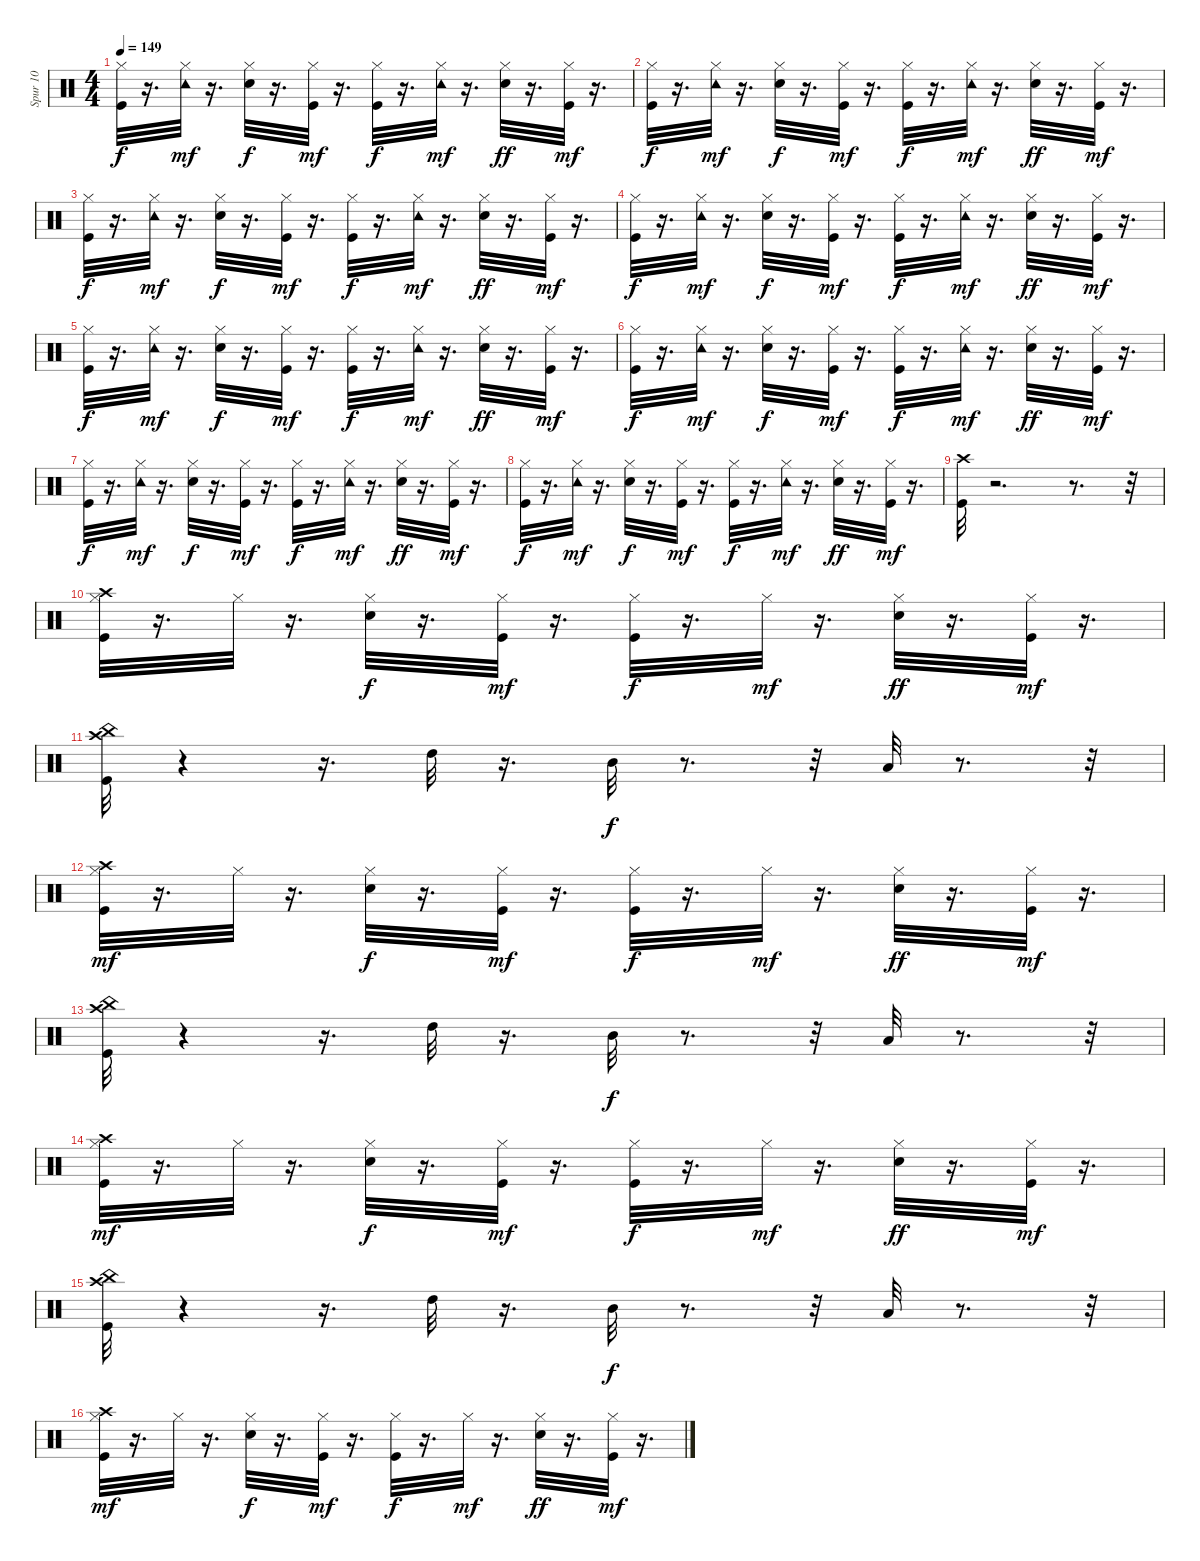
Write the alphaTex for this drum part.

\track ("Spur 10" "Spur 10") {instrument percussion}
\staff {score}
\articulation defaults
\ts (4 4)
\tempo 149
\clef neutral
\ks c
("Kick (hit)" "Hi-Hat (closed)").32{dy f} r.16{d} ("Hi-Hat (closed)" "Tambourine (hit)").32{dy mf} r.16{d} ("Snare (hit) 2" "Hi-Hat (closed)").32{dy f} r.16{d} ("Kick (hit)" "Hi-Hat (closed)").32{dy mf} r.16{d} ("Kick (hit)" "Hi-Hat (closed)").32{dy f} r.16{d} ("Hi-Hat (closed)" "Tambourine (hit)").32{dy mf} r.16{d} ("Snare (hit) 2" "Hi-Hat (closed)").32{dy ff} r.16{d} ("Kick (hit)" "Hi-Hat (closed)").32{dy mf} r.16{d} |
("Kick (hit)" "Hi-Hat (closed)").32{dy f} r.16{d} ("Hi-Hat (closed)" "Tambourine (hit)").32{dy mf} r.16{d} ("Snare (hit) 2" "Hi-Hat (closed)").32{dy f} r.16{d} ("Kick (hit)" "Hi-Hat (closed)").32{dy mf} r.16{d} ("Kick (hit)" "Hi-Hat (closed)").32{dy f} r.16{d} ("Hi-Hat (closed)" "Tambourine (hit)").32{dy mf} r.16{d} ("Snare (hit) 2" "Hi-Hat (closed)").32{dy ff} r.16{d} ("Kick (hit)" "Hi-Hat (closed)").32{dy mf} r.16{d} |
("Kick (hit)" "Hi-Hat (closed)").32{dy f} r.16{d} ("Hi-Hat (closed)" "Tambourine (hit)").32{dy mf} r.16{d} ("Snare (hit) 2" "Hi-Hat (closed)").32{dy f} r.16{d} ("Kick (hit)" "Hi-Hat (closed)").32{dy mf} r.16{d} ("Kick (hit)" "Hi-Hat (closed)").32{dy f} r.16{d} ("Hi-Hat (closed)" "Tambourine (hit)").32{dy mf} r.16{d} ("Snare (hit) 2" "Hi-Hat (closed)").32{dy ff} r.16{d} ("Kick (hit)" "Hi-Hat (closed)").32{dy mf} r.16{d} |
("Kick (hit)" "Hi-Hat (closed)").32{dy f} r.16{d} ("Hi-Hat (closed)" "Tambourine (hit)").32{dy mf} r.16{d} ("Snare (hit) 2" "Hi-Hat (closed)").32{dy f} r.16{d} ("Kick (hit)" "Hi-Hat (closed)").32{dy mf} r.16{d} ("Kick (hit)" "Hi-Hat (closed)").32{dy f} r.16{d} ("Hi-Hat (closed)" "Tambourine (hit)").32{dy mf} r.16{d} ("Snare (hit) 2" "Hi-Hat (closed)").32{dy ff} r.16{d} ("Kick (hit)" "Hi-Hat (closed)").32{dy mf} r.16{d} |
("Kick (hit)" "Hi-Hat (closed)").32{dy f} r.16{d} ("Hi-Hat (closed)" "Tambourine (hit)").32{dy mf} r.16{d} ("Snare (hit) 2" "Hi-Hat (closed)").32{dy f} r.16{d} ("Kick (hit)" "Hi-Hat (closed)").32{dy mf} r.16{d} ("Kick (hit)" "Hi-Hat (closed)").32{dy f} r.16{d} ("Hi-Hat (closed)" "Tambourine (hit)").32{dy mf} r.16{d} ("Snare (hit) 2" "Hi-Hat (closed)").32{dy ff} r.16{d} ("Kick (hit)" "Hi-Hat (closed)").32{dy mf} r.16{d} |
("Kick (hit)" "Hi-Hat (closed)").32{dy f} r.16{d} ("Hi-Hat (closed)" "Tambourine (hit)").32{dy mf} r.16{d} ("Snare (hit) 2" "Hi-Hat (closed)").32{dy f} r.16{d} ("Kick (hit)" "Hi-Hat (closed)").32{dy mf} r.16{d} ("Kick (hit)" "Hi-Hat (closed)").32{dy f} r.16{d} ("Hi-Hat (closed)" "Tambourine (hit)").32{dy mf} r.16{d} ("Snare (hit) 2" "Hi-Hat (closed)").32{dy ff} r.16{d} ("Kick (hit)" "Hi-Hat (closed)").32{dy mf} r.16{d} |
("Kick (hit)" "Hi-Hat (closed)").32{dy f} r.16{d} ("Hi-Hat (closed)" "Tambourine (hit)").32{dy mf} r.16{d} ("Snare (hit) 2" "Hi-Hat (closed)").32{dy f} r.16{d} ("Kick (hit)" "Hi-Hat (closed)").32{dy mf} r.16{d} ("Kick (hit)" "Hi-Hat (closed)").32{dy f} r.16{d} ("Hi-Hat (closed)" "Tambourine (hit)").32{dy mf} r.16{d} ("Snare (hit) 2" "Hi-Hat (closed)").32{dy ff} r.16{d} ("Kick (hit)" "Hi-Hat (closed)").32{dy mf} r.16{d} |
("Kick (hit)" "Hi-Hat (closed)").32{dy f} r.16{d} ("Hi-Hat (closed)" "Tambourine (hit)").32{dy mf} r.16{d} ("Snare (hit) 2" "Hi-Hat (closed)").32{dy f} r.16{d} ("Kick (hit)" "Hi-Hat (closed)").32{dy mf} r.16{d} ("Kick (hit)" "Hi-Hat (closed)").32{dy f} r.16{d} ("Hi-Hat (closed)" "Tambourine (hit)").32{dy mf} r.16{d} ("Snare (hit) 2" "Hi-Hat (closed)").32{dy ff} r.16{d} ("Kick (hit)" "Hi-Hat (closed)").32{dy mf} r.16{d} |
("Kick (hit)" "Crash high (hit)").32 r.2{d} r.8{d} r.32 |
("Kick (hit)" "Hi-Hat (closed)" "Crash high (hit)").32 r.16{d} "Hi-Hat (closed)".32 r.16{d} ("Snare (hit) 2" "Hi-Hat (closed)").32{dy f} r.16{d} ("Kick (hit)" "Hi-Hat (closed)").32{dy mf} r.16{d} ("Kick (hit)" "Hi-Hat (closed)").32{dy f} r.16{d} "Hi-Hat (closed)".32{dy mf} r.16{d} ("Snare (hit) 2" "Hi-Hat (closed)").32{dy ff} r.16{d} ("Kick (hit)" "Hi-Hat (closed)").32{dy mf} r.16{d} |
("Kick (hit)" "China (choke)" "Crash high (hit)").32 r.4 r.16{d} "High Tom (hit)".32 r.16{d} "Mid Tom (hit)".32{dy f} r.8{d} r.32 "Low Tom (hit)".32 r.8{d} r.32 |
("Kick (hit)" "Hi-Hat (closed)" "Crash high (hit)").32{dy mf} r.16{d} "Hi-Hat (closed)".32 r.16{d} ("Snare (hit) 2" "Hi-Hat (closed)").32{dy f} r.16{d} ("Kick (hit)" "Hi-Hat (closed)").32{dy mf} r.16{d} ("Kick (hit)" "Hi-Hat (closed)").32{dy f} r.16{d} "Hi-Hat (closed)".32{dy mf} r.16{d} ("Snare (hit) 2" "Hi-Hat (closed)").32{dy ff} r.16{d} ("Kick (hit)" "Hi-Hat (closed)").32{dy mf} r.16{d} |
("Kick (hit)" "China (choke)" "Crash high (hit)").32 r.4 r.16{d} "High Tom (hit)".32 r.16{d} "Mid Tom (hit)".32{dy f} r.8{d} r.32 "Low Tom (hit)".32 r.8{d} r.32 |
("Kick (hit)" "Hi-Hat (closed)" "Crash high (hit)").32{dy mf} r.16{d} "Hi-Hat (closed)".32 r.16{d} ("Snare (hit) 2" "Hi-Hat (closed)").32{dy f} r.16{d} ("Kick (hit)" "Hi-Hat (closed)").32{dy mf} r.16{d} ("Kick (hit)" "Hi-Hat (closed)").32{dy f} r.16{d} "Hi-Hat (closed)".32{dy mf} r.16{d} ("Snare (hit) 2" "Hi-Hat (closed)").32{dy ff} r.16{d} ("Kick (hit)" "Hi-Hat (closed)").32{dy mf} r.16{d} |
("Kick (hit)" "China (choke)" "Crash high (hit)").32 r.4 r.16{d} "High Tom (hit)".32 r.16{d} "Mid Tom (hit)".32{dy f} r.8{d} r.32 "Low Tom (hit)".32 r.8{d} r.32 |
("Kick (hit)" "Hi-Hat (closed)" "Crash high (hit)").32{dy mf} r.16{d} "Hi-Hat (closed)".32 r.16{d} ("Snare (hit) 2" "Hi-Hat (closed)").32{dy f} r.16{d} ("Kick (hit)" "Hi-Hat (closed)").32{dy mf} r.16{d} ("Kick (hit)" "Hi-Hat (closed)").32{dy f} r.16{d} "Hi-Hat (closed)".32{dy mf} r.16{d} ("Snare (hit) 2" "Hi-Hat (closed)").32{dy ff} r.16{d} ("Kick (hit)" "Hi-Hat (closed)").32{dy mf} r.16{d}
